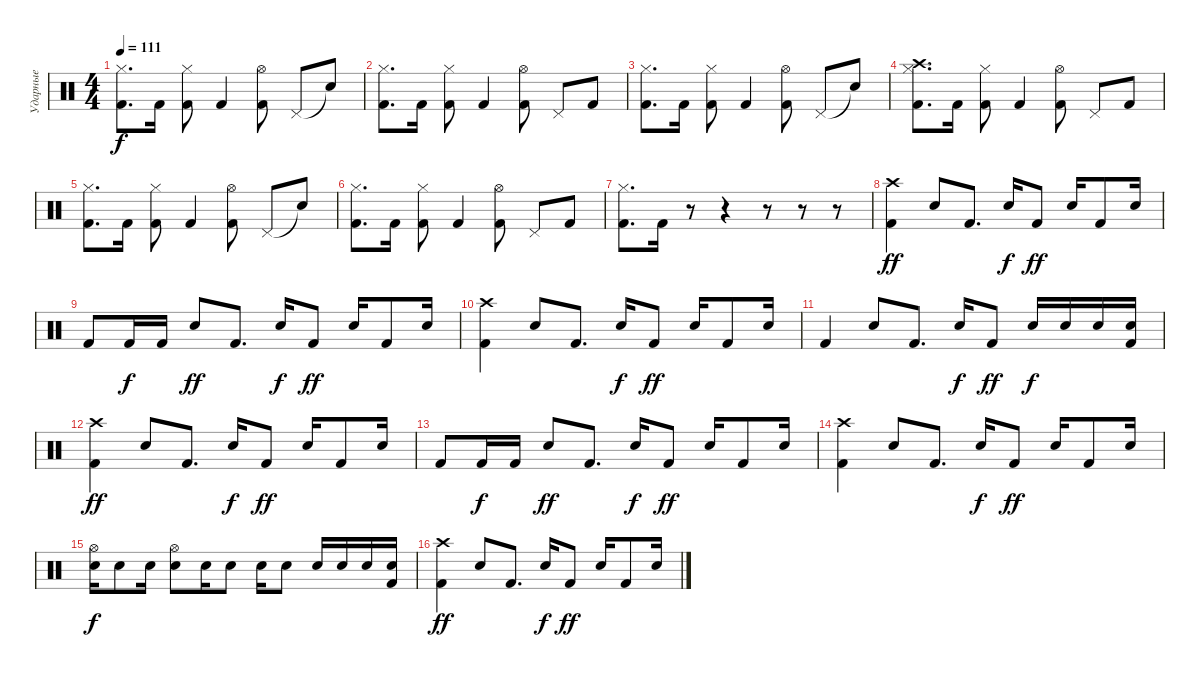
\track ("Ударные" "Ударные") {instrument percussion}
\staff {score}
\articulation defaults
\ts (4 4)
\tempo 111
\clef neutral
\ks c
("Kick (hit) 2" "Hi-Hat (closed)").8{d dy f} "Kick (hit) 2".16 ("Kick (hit) 2" "Hi-Hat (closed)").8 "Kick (hit) 2".4 ("Kick (hit) 2" "Hi-Hat (open)").8 "Pedal Hi-Hat (hit)".8 "Snare (hit)"{t}.8 |
("Kick (hit) 2" "Hi-Hat (closed)").8{d} "Kick (hit) 2".16 ("Kick (hit) 2" "Hi-Hat (closed)").8 "Kick (hit) 2".4 ("Kick (hit) 2" "Hi-Hat (open)").8 "Pedal Hi-Hat (hit)".8 "Kick (hit) 2".8 |
("Kick (hit) 2" "Hi-Hat (closed)").8{d} "Kick (hit) 2".16 ("Kick (hit) 2" "Hi-Hat (closed)").8 "Kick (hit) 2".4 ("Kick (hit) 2" "Hi-Hat (open)").8 "Pedal Hi-Hat (hit)".8 "Snare (hit)"{t}.8 |
("Crash high (hit)" "Kick (hit) 2" "Hi-Hat (closed)").8{d} "Kick (hit) 2".16 ("Kick (hit) 2" "Hi-Hat (closed)").8 "Kick (hit) 2".4 ("Kick (hit) 2" "Hi-Hat (open)").8 "Pedal Hi-Hat (hit)".8 "Kick (hit) 2".8 |
("Kick (hit) 2" "Hi-Hat (closed)").8{d} "Kick (hit) 2".16 ("Kick (hit) 2" "Hi-Hat (closed)").8 "Kick (hit) 2".4 ("Kick (hit) 2" "Hi-Hat (open)").8 "Pedal Hi-Hat (hit)".8 "Snare (hit)"{t}.8 |
("Kick (hit) 2" "Hi-Hat (closed)").8{d} "Kick (hit) 2".16 ("Kick (hit) 2" "Hi-Hat (closed)").8 "Kick (hit) 2".4 ("Kick (hit) 2" "Hi-Hat (open)").8 "Pedal Hi-Hat (hit)".8 "Kick (hit) 2".8 |
("Kick (hit) 2" "Hi-Hat (closed)").8{d} "Kick (hit) 2".16 r.8 r.4 r.8 r.8 r.8 |
("Crash high (hit)" "Kick (hit) 2").4{dy ff} "Snare (hit) 2".8 "Kick (hit) 2".8{d} "Snare (hit) 2".16{dy f} "Kick (hit) 2".8{dy ff} "Snare (hit) 2".16 "Kick (hit) 2".8 "Snare (hit) 2".16 |
"Kick (hit) 2".8 "Kick (hit) 2".16{dy f} "Kick (hit) 2".16 "Snare (hit) 2".8{dy ff} "Kick (hit) 2".8{d} "Snare (hit) 2".16{dy f} "Kick (hit) 2".8{dy ff} "Snare (hit) 2".16 "Kick (hit) 2".8 "Snare (hit) 2".16 |
("Crash high (hit)" "Kick (hit) 2").4 "Snare (hit) 2".8 "Kick (hit) 2".8{d} "Snare (hit) 2".16{dy f} "Kick (hit) 2".8{dy ff} "Snare (hit) 2".16 "Kick (hit) 2".8 "Snare (hit) 2".16 |
"Kick (hit) 2".4 "Snare (hit) 2".8 "Kick (hit) 2".8{d} "Snare (hit) 2".16{dy f} "Kick (hit) 2".8{dy ff} "Electric Snare (hit)".16{dy f} "Electric Snare (hit)".16 "Snare (hit) 2".16 ("Snare (hit) 2" "Kick (hit) 2").16 |
("Crash high (hit)" "Kick (hit) 2").4{dy ff} "Snare (hit) 2".8 "Kick (hit) 2".8{d} "Snare (hit) 2".16{dy f} "Kick (hit) 2".8{dy ff} "Snare (hit) 2".16 "Kick (hit) 2".8 "Snare (hit) 2".16 |
"Kick (hit) 2".8 "Kick (hit) 2".16{dy f} "Kick (hit) 2".16 "Snare (hit) 2".8{dy ff} "Kick (hit) 2".8{d} "Snare (hit) 2".16{dy f} "Kick (hit) 2".8{dy ff} "Snare (hit) 2".16 "Kick (hit) 2".8 "Snare (hit) 2".16 |
("Crash high (hit)" "Kick (hit) 2").4 "Snare (hit) 2".8 "Kick (hit) 2".8{d} "Snare (hit) 2".16{dy f} "Kick (hit) 2".8{dy ff} "Snare (hit) 2".16 "Kick (hit) 2".8 "Snare (hit) 2".16 |
("Electric Snare (hit)" "Hi-Hat (open)").16{dy f} "Electric Snare (hit)".8 "Electric Snare (hit)".16 ("Hi-Hat (open)" "Electric Snare (hit)").8 "Electric Snare (hit)".16 "Electric Snare (hit)".8 "Electric Snare (hit)".16 "Electric Snare (hit)".8 "Electric Snare (hit)".16 "Electric Snare (hit)".16 "Snare (hit) 2".16 ("Snare (hit) 2" "Kick (hit) 2").16 |
("Crash high (hit)" "Kick (hit) 2").4{dy ff} "Snare (hit) 2".8 "Kick (hit) 2".8{d} "Snare (hit) 2".16{dy f} "Kick (hit) 2".8{dy ff} "Snare (hit) 2".16 "Kick (hit) 2".8 "Snare (hit) 2".16
